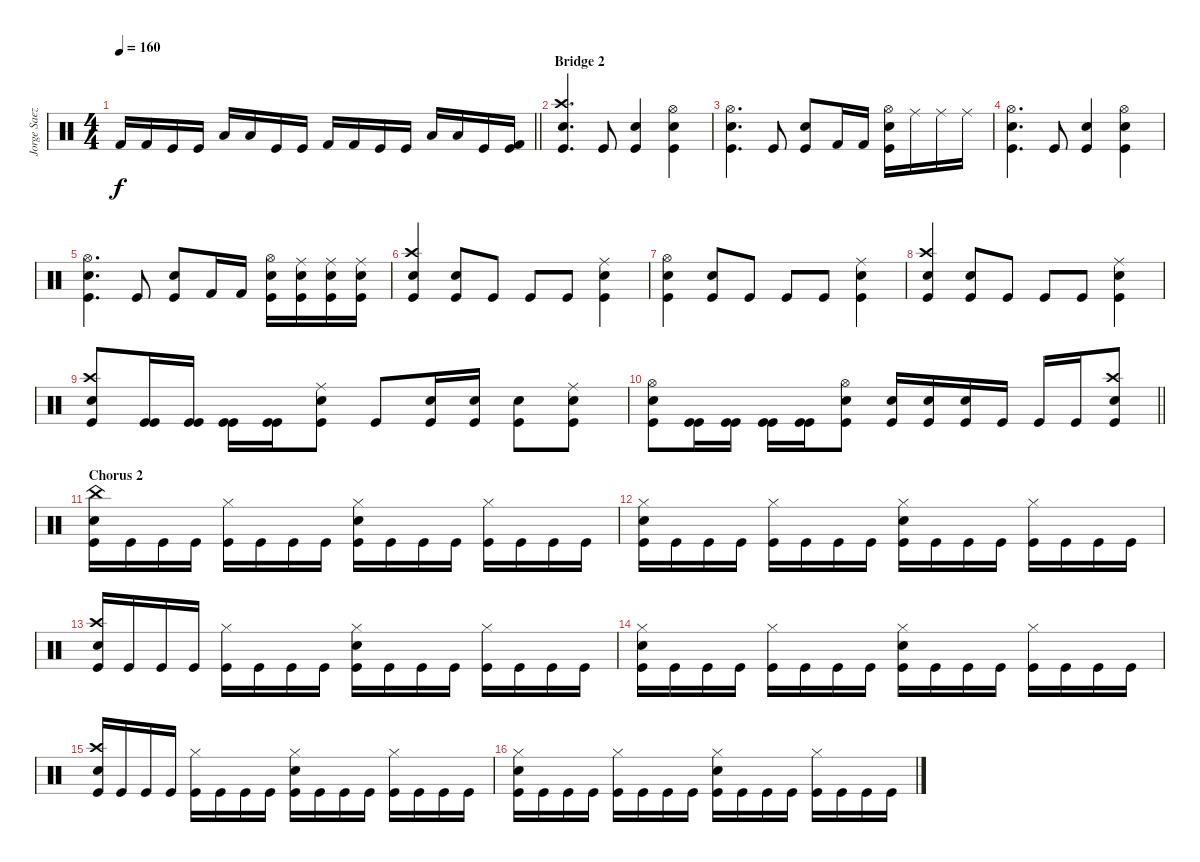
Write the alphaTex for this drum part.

\track ("Jorge Saez" "Jorge Saez") {instrument percussion}
\staff {score}
\articulation defaults
\ts (4 4)
\tempo 160
\clef neutral
\barLineRight lightlight
\ks c "Kick (hit) 2".16{dy f} "Kick (hit) 2".16 "Kick (hit)".16 "Kick (hit)".16 "Low Floor Tom (hit)".16 "Low Floor Tom (hit)".16 "Kick (hit)".16 "Kick (hit)".16 "Kick (hit) 2".16 "Kick (hit) 2".16 "Kick (hit)".16 "Kick (hit)".16 "Low Floor Tom (hit)".16 "Low Floor Tom (hit)".16 "Kick (hit)".16
("Kick (hit) 2" "Kick (hit)").16 |
\section ("" "Bridge 2")
("Crash high (hit)" "Electric Snare (hit)" "Kick (hit)").4{d} "Kick (hit)".8 ("Snare (hit) 2" "Kick (hit)").4 ("Hi-Hat (open)" "Electric Snare (hit)" "Kick (hit)").4 |
("Hi-Hat (open)" "Electric Snare (hit)" "Kick (hit)").4{d} "Kick (hit)".8 ("Snare (hit) 2" "Kick (hit)").8 "Kick (hit) 2".16 "Kick (hit) 2".16 ("Hi-Hat (open)" "Electric Snare (hit)" "Kick (hit)").16 "Ride (middle)".16 "Ride (middle)".16 "Ride (middle)".16 |
("Hi-Hat (open)" "Electric Snare (hit)" "Kick (hit)").4{d} "Kick (hit)".8 ("Snare (hit) 2" "Kick (hit)").4 ("Hi-Hat (open)" "Electric Snare (hit)" "Kick (hit)").4 |
("Hi-Hat (open)" "Electric Snare (hit)" "Kick (hit)").4{d} "Kick (hit)".8 ("Snare (hit) 2" "Kick (hit)").8 "Kick (hit) 2".16 "Kick (hit) 2".16 ("Hi-Hat (open)" "Electric Snare (hit)" "Kick (hit)").16 ("Ride (middle)" "Electric Snare (hit)" "Kick (hit)").16 ("Ride (middle)" "Electric Snare (hit)" "Kick (hit)").16 ("Ride (middle)" "Electric Snare (hit)" "Kick (hit)").16 |
("Crash high (hit)" "Electric Snare (hit)" "Kick (hit)").4 ("Electric Snare (hit)" "Kick (hit)").8 "Kick (hit)".8 "Kick (hit)".8 "Kick (hit)".8 ("Ride (middle)" "Electric Snare (hit)" "Kick (hit)").4 |
("Hi-Hat (open)" "Electric Snare (hit)" "Kick (hit)").4 ("Electric Snare (hit)" "Kick (hit)").8 "Kick (hit)".8 "Kick (hit)".8 "Kick (hit)".8 ("Ride (middle)" "Electric Snare (hit)" "Kick (hit)").4 |
("Crash high (hit)" "Electric Snare (hit)" "Kick (hit)").4 ("Electric Snare (hit)" "Kick (hit)").8 "Kick (hit)".8 "Kick (hit)".8 "Kick (hit)".8 ("Ride (middle)" "Electric Snare (hit)" "Kick (hit)").4 |
("Crash high (hit)" "Electric Snare (hit)" "Kick (hit)").8 ("Kick (hit)" "Kick (hit)").16 ("Kick (hit)" "Kick (hit)").16 ("Kick (hit)" "Kick (hit)").16 ("Kick (hit)" "Kick (hit)").16 ("Ride (middle)" "Electric Snare (hit)" "Kick (hit)").8 "Kick (hit)".8 ("Electric Snare (hit)" "Kick (hit)").16 ("Electric Snare (hit)" "Kick (hit)").16 ("Electric Snare (hit)" "Kick (hit)").8 ("Ride (middle)" "Electric Snare (hit)" "Kick (hit)").8 |
\barLineRight lightlight
("Hi-Hat (open)" "Electric Snare (hit)" "Kick (hit)").8 ("Kick (hit)" "Kick (hit)").16 ("Kick (hit)" "Kick (hit)").16 ("Kick (hit)" "Kick (hit)").16 ("Kick (hit)" "Kick (hit)").16 ("Hi-Hat (open)" "Electric Snare (hit)" "Kick (hit)").8 ("Snare (hit) 2" "Kick (hit)").16 ("Snare (hit) 2" "Kick (hit)").16 ("Snare (hit) 2" "Kick (hit)").16 "Kick (hit)".16 "Kick (hit)".16 "Kick (hit)".16 ("Crash high (hit)" "Electric Snare (hit)" "Kick (hit)").8 |
\section ("" "Chorus 2")
("China (hit)" "Electric Snare (hit)" "Kick (hit)").16 "Kick (hit)".16 "Kick (hit)".16 "Kick (hit)".16 ("Hi-Hat (closed)" "Kick (hit)").16 "Kick (hit)".16 "Kick (hit)".16 "Kick (hit)".16 ("Hi-Hat (closed)" "Snare (hit) 2" "Kick (hit)").16 "Kick (hit)".16 "Kick (hit)".16 "Kick (hit)".16 ("Hi-Hat (closed)" "Kick (hit)").16 "Kick (hit)".16 "Kick (hit)".16 "Kick (hit)".16 |
("Hi-Hat (closed)" "Snare (hit) 2" "Kick (hit)").16 "Kick (hit)".16 "Kick (hit)".16 "Kick (hit)".16 ("Hi-Hat (closed)" "Kick (hit)").16 "Kick (hit)".16 "Kick (hit)".16 "Kick (hit)".16 ("Hi-Hat (closed)" "Snare (hit) 2" "Kick (hit)").16 "Kick (hit)".16 "Kick (hit)".16 "Kick (hit)".16 ("Hi-Hat (closed)" "Kick (hit)").16 "Kick (hit)".16 "Kick (hit)".16 "Kick (hit)".16 |
("Crash high (hit)" "Electric Snare (hit)" "Kick (hit)").16 "Kick (hit)".16 "Kick (hit)".16 "Kick (hit)".16 ("Hi-Hat (closed)" "Kick (hit)").16 "Kick (hit)".16 "Kick (hit)".16 "Kick (hit)".16 ("Hi-Hat (closed)" "Snare (hit) 2" "Kick (hit)").16 "Kick (hit)".16 "Kick (hit)".16 "Kick (hit)".16 ("Hi-Hat (closed)" "Kick (hit)").16 "Kick (hit)".16 "Kick (hit)".16 "Kick (hit)".16 |
("Hi-Hat (closed)" "Snare (hit) 2" "Kick (hit)").16 "Kick (hit)".16 "Kick (hit)".16 "Kick (hit)".16 ("Hi-Hat (closed)" "Kick (hit)").16 "Kick (hit)".16 "Kick (hit)".16 "Kick (hit)".16 ("Hi-Hat (closed)" "Snare (hit) 2" "Kick (hit)").16 "Kick (hit)".16 "Kick (hit)".16 "Kick (hit)".16 ("Hi-Hat (closed)" "Kick (hit)").16 "Kick (hit)".16 "Kick (hit)".16 "Kick (hit)".16 |
("Crash high (hit)" "Electric Snare (hit)" "Kick (hit)").16 "Kick (hit)".16 "Kick (hit)".16 "Kick (hit)".16 ("Hi-Hat (closed)" "Kick (hit)").16 "Kick (hit)".16 "Kick (hit)".16 "Kick (hit)".16 ("Hi-Hat (closed)" "Snare (hit) 2" "Kick (hit)").16 "Kick (hit)".16 "Kick (hit)".16 "Kick (hit)".16 ("Hi-Hat (closed)" "Kick (hit)").16 "Kick (hit)".16 "Kick (hit)".16 "Kick (hit)".16 |
("Hi-Hat (closed)" "Snare (hit) 2" "Kick (hit)").16 "Kick (hit)".16 "Kick (hit)".16 "Kick (hit)".16 ("Hi-Hat (closed)" "Kick (hit)").16 "Kick (hit)".16 "Kick (hit)".16 "Kick (hit)".16 ("Hi-Hat (closed)" "Snare (hit) 2" "Kick (hit)").16 "Kick (hit)".16 "Kick (hit)".16 "Kick (hit)".16 ("Hi-Hat (closed)" "Kick (hit)").16 "Kick (hit)".16 "Kick (hit)".16 "Kick (hit)".16
